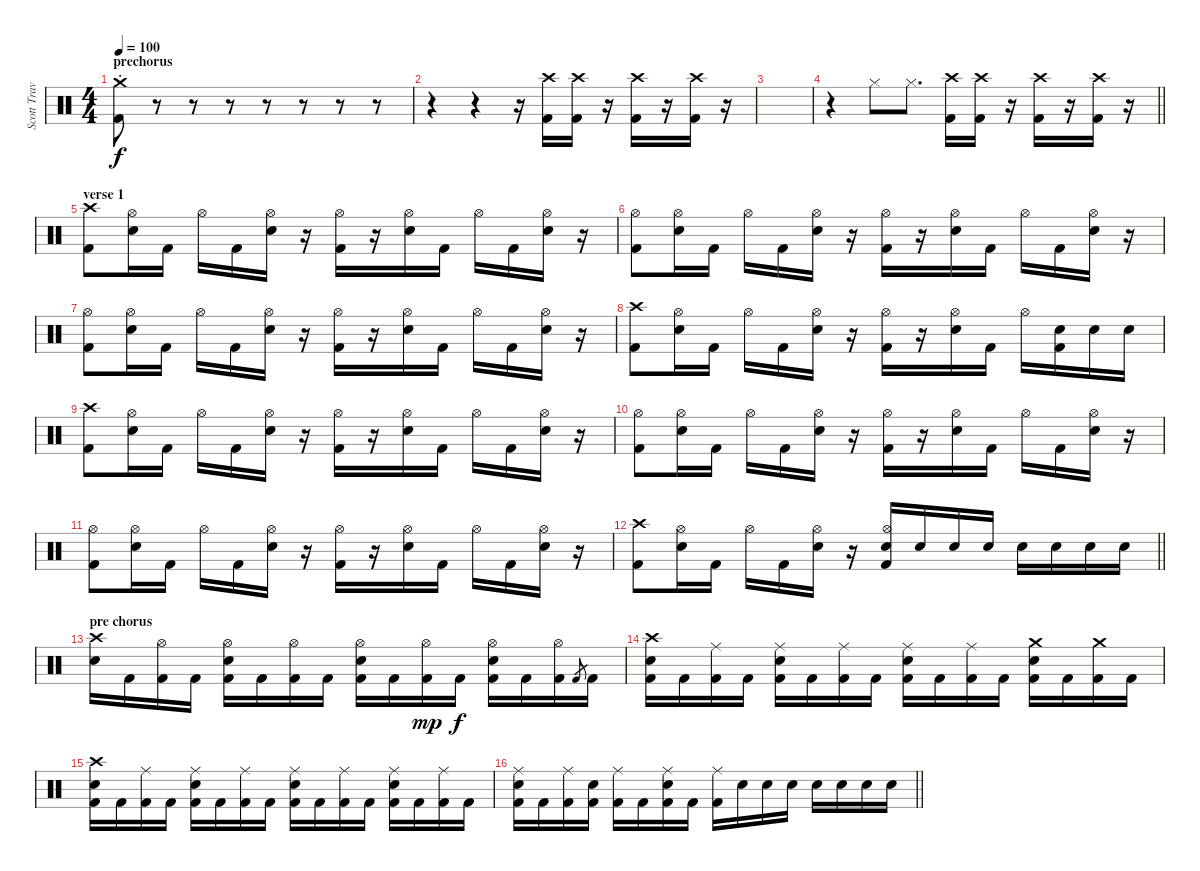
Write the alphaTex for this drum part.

\track ("Scott Travis" "Scott Trav") {instrument percussion}
\staff {score}
\articulation defaults
\ts (4 4)
\section ("" "prechorus ")
\tempo 100
\clef neutral
\ks c
("Crash medium (hit)"{st} "Kick (hit) 2").8{dy f} r.8 r.8 r.8 r.8 r.8 r.8 r.8 |
r.4 r.4 r.16 ("Crash high (hit)" "Kick (hit) 2").16 ("Crash high (hit)" "Kick (hit) 2").16 r.16 ("Crash high (hit)" "Kick (hit) 2").16 r.16 ("Crash high (hit)" "Kick (hit) 2").16 r.16 |
|
\barLineRight lightlight
r.4 "Hi-Hat (closed)".8 "Hi-Hat (closed)".8{d} ("Crash high (hit)" "Kick (hit) 2").16 ("Crash high (hit)" "Kick (hit) 2").16 r.16 ("Crash high (hit)" "Kick (hit) 2").16 r.16 ("Crash high (hit)" "Kick (hit) 2").16 r.16 |
\section ("" "verse 1")
("Crash high (hit)" "Kick (hit) 2").8 ("Hi-Hat (open)" "Snare (hit) 2").16 "Kick (hit) 2".16 "Hi-Hat (open)".16 "Kick (hit) 2".16 ("Hi-Hat (open)" "Snare (hit) 2").16 r.16 ("Hi-Hat (open)" "Kick (hit) 2").16 r.16 ("Hi-Hat (open)" "Snare (hit) 2").16 "Kick (hit) 2".16 "Hi-Hat (open)".16 "Kick (hit) 2".16 ("Hi-Hat (open)" "Snare (hit) 2").16 r.16 |
("Hi-Hat (open)" "Kick (hit) 2").8 ("Hi-Hat (open)" "Snare (hit) 2").16 "Kick (hit) 2".16 "Hi-Hat (open)".16 "Kick (hit) 2".16 ("Hi-Hat (open)" "Snare (hit) 2").16 r.16 ("Hi-Hat (open)" "Kick (hit) 2").16 r.16 ("Hi-Hat (open)" "Snare (hit) 2").16 "Kick (hit) 2".16 "Hi-Hat (open)".16 "Kick (hit) 2".16 ("Hi-Hat (open)" "Snare (hit) 2").16 r.16 |
("Hi-Hat (open)" "Kick (hit) 2").8 ("Hi-Hat (open)" "Snare (hit) 2").16 "Kick (hit) 2".16 "Hi-Hat (open)".16 "Kick (hit) 2".16 ("Hi-Hat (open)" "Snare (hit) 2").16 r.16 ("Hi-Hat (open)" "Kick (hit) 2").16 r.16 ("Hi-Hat (open)" "Snare (hit) 2").16 "Kick (hit) 2".16 "Hi-Hat (open)".16 "Kick (hit) 2".16 ("Hi-Hat (open)" "Snare (hit) 2").16 r.16 |
("Crash high (hit)" "Kick (hit) 2").8 ("Hi-Hat (open)" "Snare (hit) 2").16 "Kick (hit) 2".16 "Hi-Hat (open)".16 "Kick (hit) 2".16 ("Hi-Hat (open)" "Snare (hit) 2").16 r.16 ("Hi-Hat (open)" "Kick (hit) 2").16 r.16 ("Hi-Hat (open)" "Snare (hit) 2").16 "Kick (hit) 2".16 "Hi-Hat (open)".16 ("Snare (hit) 2" "Kick (hit) 2").16 "Snare (hit) 2".16 "Snare (hit) 2".16 |
("Crash high (hit)" "Kick (hit) 2").8 ("Hi-Hat (open)" "Snare (hit) 2").16 "Kick (hit) 2".16 "Hi-Hat (open)".16 "Kick (hit) 2".16 ("Hi-Hat (open)" "Snare (hit) 2").16 r.16 ("Hi-Hat (open)" "Kick (hit) 2").16 r.16 ("Hi-Hat (open)" "Snare (hit) 2").16 "Kick (hit) 2".16 "Hi-Hat (open)".16 "Kick (hit) 2".16 ("Hi-Hat (open)" "Snare (hit) 2").16 r.16 |
("Hi-Hat (open)" "Kick (hit) 2").8 ("Hi-Hat (open)" "Snare (hit) 2").16 "Kick (hit) 2".16 "Hi-Hat (open)".16 "Kick (hit) 2".16 ("Hi-Hat (open)" "Snare (hit) 2").16 r.16 ("Hi-Hat (open)" "Kick (hit) 2").16 r.16 ("Hi-Hat (open)" "Snare (hit) 2").16 "Kick (hit) 2".16 "Hi-Hat (open)".16 "Kick (hit) 2".16 ("Hi-Hat (open)" "Snare (hit) 2").16 r.16 |
("Hi-Hat (open)" "Kick (hit) 2").8 ("Hi-Hat (open)" "Snare (hit) 2").16 "Kick (hit) 2".16 "Hi-Hat (open)".16 "Kick (hit) 2".16 ("Hi-Hat (open)" "Snare (hit) 2").16 r.16 ("Hi-Hat (open)" "Kick (hit) 2").16 r.16 ("Hi-Hat (open)" "Snare (hit) 2").16 "Kick (hit) 2".16 "Hi-Hat (open)".16 "Kick (hit) 2".16 ("Hi-Hat (open)" "Snare (hit) 2").16 r.16 |
\barLineRight lightlight
("Crash high (hit)" "Kick (hit) 2").8 ("Hi-Hat (open)" "Snare (hit) 2").16 "Kick (hit) 2".16 "Hi-Hat (open)".16 "Kick (hit) 2".16 ("Hi-Hat (open)" "Snare (hit) 2").16 r.16 ("Hi-Hat (open)" "Snare (hit) 2" "Kick (hit) 2").16 "Snare (hit) 2".16 "Snare (hit) 2".16 "Snare (hit) 2".16 "Snare (hit) 2".16 "Snare (hit) 2".16 "Snare (hit) 2".16 "Snare (hit) 2".16 |
\section ("" "pre chorus ")
("Crash high (hit)" "Snare (hit) 2").16 "Kick (hit) 2".16 ("Hi-Hat (open)" "Kick (hit) 2").16 "Kick (hit) 2".16 ("Hi-Hat (open)" "Snare (hit) 2" "Kick (hit) 2").16 "Kick (hit) 2".16 ("Hi-Hat (open)" "Kick (hit) 2").16 "Kick (hit) 2".16 ("Hi-Hat (open)" "Snare (hit) 2" "Kick (hit) 2").16 "Kick (hit) 2".16 ("Hi-Hat (open)" "Kick (hit) 2").16{dy mp} "Kick (hit) 2".16{dy f} ("Hi-Hat (open)" "Snare (hit) 2" "Kick (hit) 2").16 "Kick (hit) 2".16 ("Hi-Hat (open)" "Kick (hit) 2").16 "Kick (hit) 2".8{gr} "Kick (hit) 2".16 |
("Crash high (hit)" "Snare (hit) 2" "Kick (hit) 2").16 "Kick (hit) 2".16 ("Ride (middle)" "Kick (hit) 2").16 "Kick (hit) 2".16 ("Ride (middle)" "Snare (hit) 2" "Kick (hit) 2").16 "Kick (hit) 2".16 ("Ride (middle)" "Kick (hit) 2").16 "Kick (hit) 2".16 ("Ride (middle)" "Snare (hit) 2" "Kick (hit) 2").16 "Kick (hit) 2".16 ("Ride (middle)" "Kick (hit) 2").16 "Kick (hit) 2".16 ("Crash medium (hit)" "Snare (hit) 2" "Kick (hit) 2").16 "Kick (hit) 2".16 ("Crash medium (hit)" "Kick (hit) 2").16 "Kick (hit) 2".16 |
("Crash high (hit)" "Snare (hit) 2" "Kick (hit) 2").16 "Kick (hit) 2".16 ("Ride (middle)" "Kick (hit) 2").16 "Kick (hit) 2".16 ("Ride (middle)" "Snare (hit) 2" "Kick (hit) 2").16 "Kick (hit) 2".16 ("Ride (middle)" "Kick (hit) 2").16 "Kick (hit) 2".16 ("Ride (middle)" "Snare (hit) 2" "Kick (hit) 2").16 "Kick (hit) 2".16 ("Ride (middle)" "Kick (hit) 2").16 "Kick (hit) 2".16 ("Ride (middle)" "Snare (hit) 2" "Kick (hit) 2").16 "Kick (hit) 2".16 ("Ride (middle)" "Kick (hit) 2").16 "Kick (hit) 2".16 |
\barLineRight lightlight
("Ride (middle)" "Snare (hit) 2" "Kick (hit) 2").16 "Kick (hit) 2".16 ("Ride (middle)" "Kick (hit) 2").16 ("Snare (hit) 2" "Kick (hit) 2").16 ("Ride (middle)" "Kick (hit) 2").16 "Kick (hit) 2".16 ("Ride (middle)" "Snare (hit) 2" "Kick (hit) 2").16 "Kick (hit) 2".16 ("Ride (middle)" "Kick (hit) 2").16 "Snare (hit) 2".16 "Snare (hit) 2".16 "Snare (hit) 2".16 "Snare (hit) 2".16 "Snare (hit) 2".16 "Snare (hit) 2".16 "Snare (hit) 2".16
